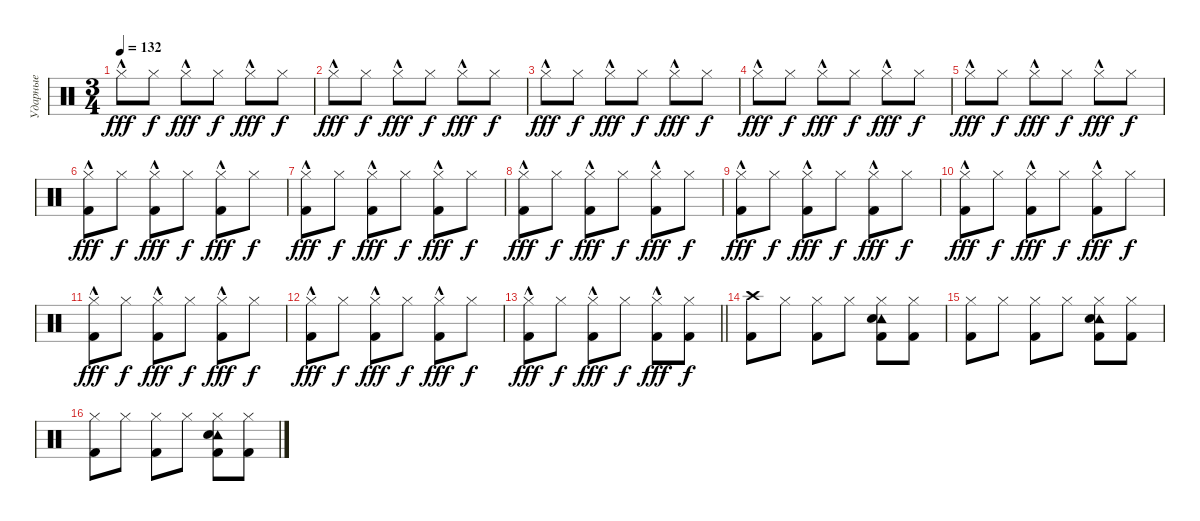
\track ("Ударные" "Ударные") {instrument percussion}
\staff {score}
\articulation defaults
\ts (3 4)
\tempo 132
\clef neutral
\ks c "Hi-Hat (closed)"{hac}.8{dy fff} "Hi-Hat (closed)".8{dy f} "Hi-Hat (closed)"{hac}.8{dy fff} "Hi-Hat (closed)".8{dy f} "Hi-Hat (closed)"{hac}.8{dy fff} "Hi-Hat (closed)".8{dy f}
|
"Hi-Hat (closed)"{hac}.8{dy fff} "Hi-Hat (closed)".8{dy f} "Hi-Hat (closed)"{hac}.8{dy fff} "Hi-Hat (closed)".8{dy f} "Hi-Hat (closed)"{hac}.8{dy fff} "Hi-Hat (closed)".8{dy f} |
"Hi-Hat (closed)"{hac}.8{dy fff} "Hi-Hat (closed)".8{dy f} "Hi-Hat (closed)"{hac}.8{dy fff} "Hi-Hat (closed)".8{dy f} "Hi-Hat (closed)"{hac}.8{dy fff} "Hi-Hat (closed)".8{dy f} |
"Hi-Hat (closed)"{hac}.8{dy fff} "Hi-Hat (closed)".8{dy f} "Hi-Hat (closed)"{hac}.8{dy fff} "Hi-Hat (closed)".8{dy f} "Hi-Hat (closed)"{hac}.8{dy fff} "Hi-Hat (closed)".8{dy f} |
"Hi-Hat (closed)"{hac}.8{dy fff} "Hi-Hat (closed)".8{dy f} "Hi-Hat (closed)"{hac}.8{dy fff} "Hi-Hat (closed)".8{dy f} "Hi-Hat (closed)"{hac}.8{dy fff} "Hi-Hat (closed)".8{dy f} |
("Hi-Hat (closed)"{hac} "Kick (hit) 2").8{dy fff} "Hi-Hat (closed)".8{dy f} ("Hi-Hat (closed)"{hac} "Kick (hit) 2").8{dy fff} "Hi-Hat (closed)".8{dy f} ("Hi-Hat (closed)"{hac} "Kick (hit) 2").8{dy fff} "Hi-Hat (closed)".8{dy f} |
("Hi-Hat (closed)"{hac} "Kick (hit) 2").8{dy fff} "Hi-Hat (closed)".8{dy f} ("Hi-Hat (closed)"{hac} "Kick (hit) 2").8{dy fff} "Hi-Hat (closed)".8{dy f} ("Hi-Hat (closed)"{hac} "Kick (hit) 2").8{dy fff} "Hi-Hat (closed)".8{dy f} |
("Hi-Hat (closed)"{hac} "Kick (hit) 2").8{dy fff} "Hi-Hat (closed)".8{dy f} ("Hi-Hat (closed)"{hac} "Kick (hit) 2").8{dy fff} "Hi-Hat (closed)".8{dy f} ("Hi-Hat (closed)"{hac} "Kick (hit) 2").8{dy fff} "Hi-Hat (closed)".8{dy f} |
("Hi-Hat (closed)"{hac} "Kick (hit) 2").8{dy fff} "Hi-Hat (closed)".8{dy f} ("Hi-Hat (closed)"{hac} "Kick (hit) 2").8{dy fff} "Hi-Hat (closed)".8{dy f} ("Hi-Hat (closed)"{hac} "Kick (hit) 2").8{dy fff} "Hi-Hat (closed)".8{dy f} |
("Hi-Hat (closed)"{hac} "Kick (hit) 2").8{dy fff} "Hi-Hat (closed)".8{dy f} ("Hi-Hat (closed)"{hac} "Kick (hit) 2").8{dy fff} "Hi-Hat (closed)".8{dy f} ("Hi-Hat (closed)"{hac} "Kick (hit) 2").8{dy fff} "Hi-Hat (closed)".8{dy f} |
("Hi-Hat (closed)"{hac} "Kick (hit) 2").8{dy fff} "Hi-Hat (closed)".8{dy f} ("Hi-Hat (closed)"{hac} "Kick (hit) 2").8{dy fff} "Hi-Hat (closed)".8{dy f} ("Hi-Hat (closed)"{hac} "Kick (hit) 2").8{dy fff} "Hi-Hat (closed)".8{dy f} |
("Hi-Hat (closed)"{hac} "Kick (hit) 2").8{dy fff} "Hi-Hat (closed)".8{dy f} ("Hi-Hat (closed)"{hac} "Kick (hit) 2").8{dy fff} "Hi-Hat (closed)".8{dy f} ("Hi-Hat (closed)"{hac} "Kick (hit) 2").8{dy fff} "Hi-Hat (closed)".8{dy f} |
\barLineRight lightlight
("Hi-Hat (closed)"{hac} "Kick (hit) 2").8{dy fff} "Hi-Hat (closed)".8{dy f} ("Hi-Hat (closed)"{hac} "Kick (hit) 2").8{dy fff} "Hi-Hat (closed)".8{dy f} ("Hi-Hat (closed)"{hac} "Kick (hit) 2").8{dy fff} ("Hi-Hat (closed)" "Kick (hit) 2").8{dy f} |
\section ("" "")
("Crash high (hit)" "Kick (hit) 2").8 "Hi-Hat (closed)".8 ("Hi-Hat (closed)" "Kick (hit) 2").8 "Hi-Hat (closed)".8 ("Hi-Hat (closed)" "Tambourine (hit)" "Kick (hit) 2" "Electric Snare (hit)").8 ("Hi-Hat (closed)" "Kick (hit) 2").8 |
("Hi-Hat (closed)" "Kick (hit) 2").8 "Hi-Hat (closed)".8 ("Hi-Hat (closed)" "Kick (hit) 2").8 "Hi-Hat (closed)".8 ("Hi-Hat (closed)" "Tambourine (hit)" "Kick (hit) 2" "Electric Snare (hit)").8 ("Hi-Hat (closed)" "Kick (hit) 2").8 |
("Hi-Hat (closed)" "Kick (hit) 2").8 "Hi-Hat (closed)".8 ("Hi-Hat (closed)" "Kick (hit) 2").8 "Hi-Hat (closed)".8 ("Hi-Hat (closed)" "Tambourine (hit)" "Kick (hit) 2" "Electric Snare (hit)").8 ("Hi-Hat (closed)" "Kick (hit) 2").8
